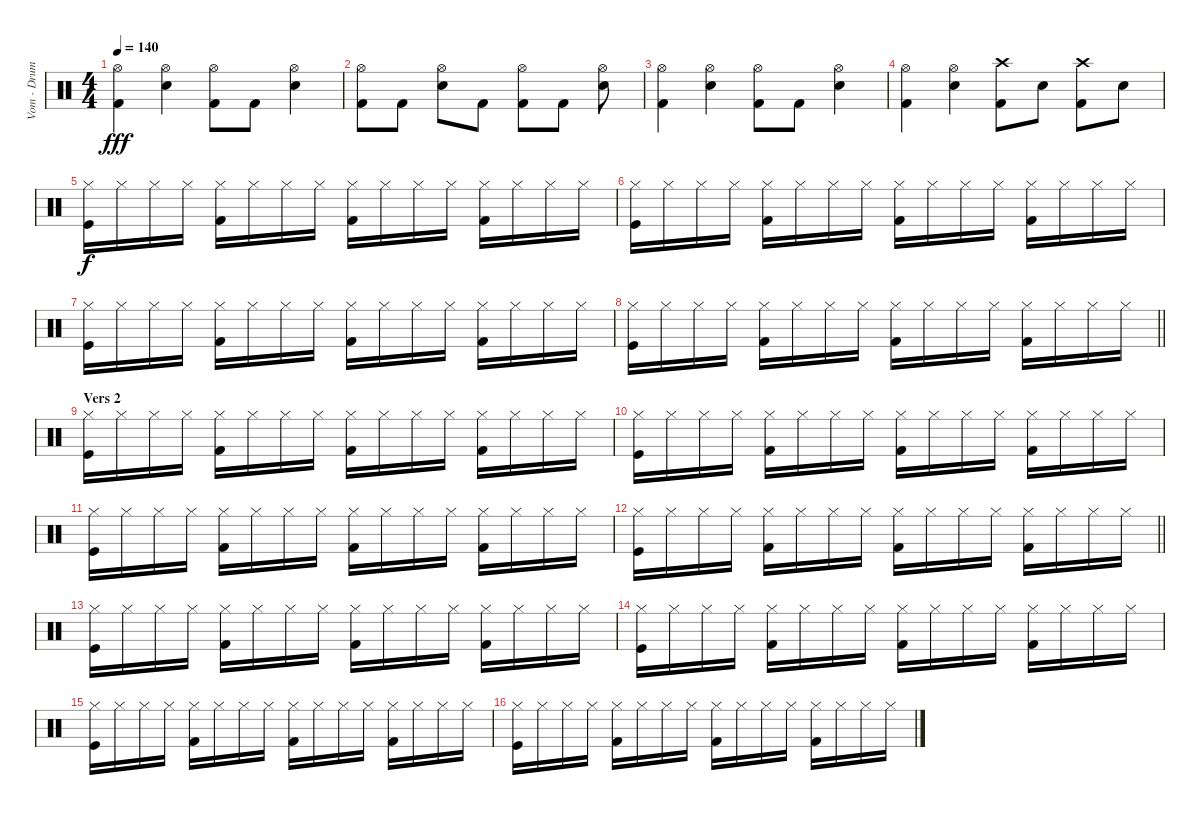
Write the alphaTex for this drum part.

\track ("Vom - Drums" "Vom - Drum") {instrument percussion}
\staff {score}
\articulation defaults
\ts (4 4)
\tempo 140
\clef neutral
\ks c
("Hi-Hat (open)" "Kick (hit) 2").4{dy fff} ("Hi-Hat (open)" "Snare (hit) 2").4 ("Hi-Hat (open)" "Kick (hit) 2").8 "Kick (hit) 2".8 ("Hi-Hat (open)" "Snare (hit) 2").4 |
("Hi-Hat (open)" "Kick (hit) 2").8 "Kick (hit) 2".8 ("Hi-Hat (open)" "Snare (hit) 2").8 "Kick (hit) 2".8 ("Hi-Hat (open)" "Kick (hit) 2").8 "Kick (hit) 2".8 ("Hi-Hat (open)" "Snare (hit) 2").8 |
("Hi-Hat (open)" "Kick (hit) 2").4 ("Hi-Hat (open)" "Snare (hit) 2").4 ("Hi-Hat (open)" "Kick (hit) 2").8 "Kick (hit) 2".8 ("Hi-Hat (open)" "Snare (hit) 2").4 |
("Hi-Hat (open)" "Kick (hit) 2").4 ("Hi-Hat (open)" "Snare (hit) 2").4 ("Crash high (hit)" "Kick (hit) 2").8 "Snare (hit) 2".8 ("Crash high (hit)" "Kick (hit) 2").8 "Snare (hit) 2".8 |
("Hi-Hat (closed)" "Kick (hit)").16{dy f} "Hi-Hat (closed)".16 "Hi-Hat (closed)".16 "Hi-Hat (closed)".16 ("Hi-Hat (closed)" "Kick (hit) 2").16 "Hi-Hat (closed)".16 "Hi-Hat (closed)".16 "Hi-Hat (closed)".16 ("Hi-Hat (closed)" "Kick (hit) 2").16 "Hi-Hat (closed)".16 "Hi-Hat (closed)".16 "Hi-Hat (closed)".16 ("Hi-Hat (closed)" "Kick (hit) 2").16 "Hi-Hat (closed)".16 "Hi-Hat (closed)".16 "Hi-Hat (closed)".16 |
("Hi-Hat (closed)" "Kick (hit)").16 "Hi-Hat (closed)".16 "Hi-Hat (closed)".16 "Hi-Hat (closed)".16 ("Hi-Hat (closed)" "Kick (hit) 2").16 "Hi-Hat (closed)".16 "Hi-Hat (closed)".16 "Hi-Hat (closed)".16 ("Hi-Hat (closed)" "Kick (hit) 2").16 "Hi-Hat (closed)".16 "Hi-Hat (closed)".16 "Hi-Hat (closed)".16 ("Hi-Hat (closed)" "Kick (hit) 2").16 "Hi-Hat (closed)".16 "Hi-Hat (closed)".16 "Hi-Hat (closed)".16 |
("Hi-Hat (closed)" "Kick (hit)").16 "Hi-Hat (closed)".16 "Hi-Hat (closed)".16 "Hi-Hat (closed)".16 ("Hi-Hat (closed)" "Kick (hit) 2").16 "Hi-Hat (closed)".16 "Hi-Hat (closed)".16 "Hi-Hat (closed)".16 ("Hi-Hat (closed)" "Kick (hit) 2").16 "Hi-Hat (closed)".16 "Hi-Hat (closed)".16 "Hi-Hat (closed)".16 ("Hi-Hat (closed)" "Kick (hit) 2").16 "Hi-Hat (closed)".16 "Hi-Hat (closed)".16 "Hi-Hat (closed)".16 |
\barLineRight lightlight
("Hi-Hat (closed)" "Kick (hit)").16 "Hi-Hat (closed)".16 "Hi-Hat (closed)".16 "Hi-Hat (closed)".16 ("Hi-Hat (closed)" "Kick (hit) 2").16 "Hi-Hat (closed)".16 "Hi-Hat (closed)".16 "Hi-Hat (closed)".16 ("Hi-Hat (closed)" "Kick (hit) 2").16 "Hi-Hat (closed)".16 "Hi-Hat (closed)".16 "Hi-Hat (closed)".16 ("Hi-Hat (closed)" "Kick (hit) 2").16 "Hi-Hat (closed)".16 "Hi-Hat (closed)".16 "Hi-Hat (closed)".16 |
\section ("" "Vers 2")
("Hi-Hat (closed)" "Kick (hit)").16 "Hi-Hat (closed)".16 "Hi-Hat (closed)".16 "Hi-Hat (closed)".16 ("Hi-Hat (closed)" "Kick (hit) 2").16 "Hi-Hat (closed)".16 "Hi-Hat (closed)".16 "Hi-Hat (closed)".16 ("Hi-Hat (closed)" "Kick (hit) 2").16 "Hi-Hat (closed)".16 "Hi-Hat (closed)".16 "Hi-Hat (closed)".16 ("Hi-Hat (closed)" "Kick (hit) 2").16 "Hi-Hat (closed)".16 "Hi-Hat (closed)".16 "Hi-Hat (closed)".16 |
("Hi-Hat (closed)" "Kick (hit)").16 "Hi-Hat (closed)".16 "Hi-Hat (closed)".16 "Hi-Hat (closed)".16 ("Hi-Hat (closed)" "Kick (hit) 2").16 "Hi-Hat (closed)".16 "Hi-Hat (closed)".16 "Hi-Hat (closed)".16 ("Hi-Hat (closed)" "Kick (hit) 2").16 "Hi-Hat (closed)".16 "Hi-Hat (closed)".16 "Hi-Hat (closed)".16 ("Hi-Hat (closed)" "Kick (hit) 2").16 "Hi-Hat (closed)".16 "Hi-Hat (closed)".16 "Hi-Hat (closed)".16 |
("Hi-Hat (closed)" "Kick (hit)").16 "Hi-Hat (closed)".16 "Hi-Hat (closed)".16 "Hi-Hat (closed)".16 ("Hi-Hat (closed)" "Kick (hit) 2").16 "Hi-Hat (closed)".16 "Hi-Hat (closed)".16 "Hi-Hat (closed)".16 ("Hi-Hat (closed)" "Kick (hit) 2").16 "Hi-Hat (closed)".16 "Hi-Hat (closed)".16 "Hi-Hat (closed)".16 ("Hi-Hat (closed)" "Kick (hit) 2").16 "Hi-Hat (closed)".16 "Hi-Hat (closed)".16 "Hi-Hat (closed)".16 |
\barLineRight lightlight
("Hi-Hat (closed)" "Kick (hit)").16 "Hi-Hat (closed)".16 "Hi-Hat (closed)".16 "Hi-Hat (closed)".16 ("Hi-Hat (closed)" "Kick (hit) 2").16 "Hi-Hat (closed)".16 "Hi-Hat (closed)".16 "Hi-Hat (closed)".16 ("Hi-Hat (closed)" "Kick (hit) 2").16 "Hi-Hat (closed)".16 "Hi-Hat (closed)".16 "Hi-Hat (closed)".16 ("Hi-Hat (closed)" "Kick (hit) 2").16 "Hi-Hat (closed)".16 "Hi-Hat (closed)".16 "Hi-Hat (closed)".16 |
("Hi-Hat (closed)" "Kick (hit)").16 "Hi-Hat (closed)".16 "Hi-Hat (closed)".16 "Hi-Hat (closed)".16 ("Hi-Hat (closed)" "Kick (hit) 2").16 "Hi-Hat (closed)".16 "Hi-Hat (closed)".16 "Hi-Hat (closed)".16 ("Hi-Hat (closed)" "Kick (hit) 2").16 "Hi-Hat (closed)".16 "Hi-Hat (closed)".16 "Hi-Hat (closed)".16 ("Hi-Hat (closed)" "Kick (hit) 2").16 "Hi-Hat (closed)".16 "Hi-Hat (closed)".16 "Hi-Hat (closed)".16 |
("Hi-Hat (closed)" "Kick (hit)").16 "Hi-Hat (closed)".16 "Hi-Hat (closed)".16 "Hi-Hat (closed)".16 ("Hi-Hat (closed)" "Kick (hit) 2").16 "Hi-Hat (closed)".16 "Hi-Hat (closed)".16 "Hi-Hat (closed)".16 ("Hi-Hat (closed)" "Kick (hit) 2").16 "Hi-Hat (closed)".16 "Hi-Hat (closed)".16 "Hi-Hat (closed)".16 ("Hi-Hat (closed)" "Kick (hit) 2").16 "Hi-Hat (closed)".16 "Hi-Hat (closed)".16 "Hi-Hat (closed)".16 |
("Hi-Hat (closed)" "Kick (hit)").16 "Hi-Hat (closed)".16 "Hi-Hat (closed)".16 "Hi-Hat (closed)".16 ("Hi-Hat (closed)" "Kick (hit) 2").16 "Hi-Hat (closed)".16 "Hi-Hat (closed)".16 "Hi-Hat (closed)".16 ("Hi-Hat (closed)" "Kick (hit) 2").16 "Hi-Hat (closed)".16 "Hi-Hat (closed)".16 "Hi-Hat (closed)".16 ("Hi-Hat (closed)" "Kick (hit) 2").16 "Hi-Hat (closed)".16 "Hi-Hat (closed)".16 "Hi-Hat (closed)".16 |
("Hi-Hat (closed)" "Kick (hit)").16 "Hi-Hat (closed)".16 "Hi-Hat (closed)".16 "Hi-Hat (closed)".16 ("Hi-Hat (closed)" "Kick (hit) 2").16 "Hi-Hat (closed)".16 "Hi-Hat (closed)".16 "Hi-Hat (closed)".16 ("Hi-Hat (closed)" "Kick (hit) 2").16 "Hi-Hat (closed)".16 "Hi-Hat (closed)".16 "Hi-Hat (closed)".16 ("Hi-Hat (closed)" "Kick (hit) 2").16 "Hi-Hat (closed)".16 "Hi-Hat (closed)".16 "Hi-Hat (closed)".16
